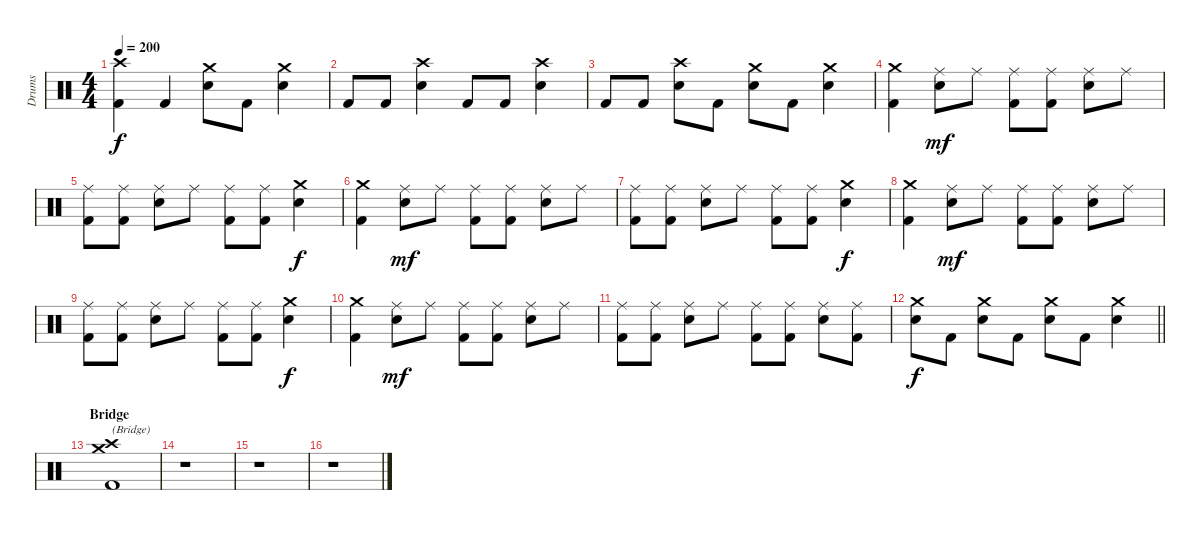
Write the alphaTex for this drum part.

\track ("Drums" "Drums") {instrument percussion}
\staff {score}
\articulation defaults
\ts (4 4)
\tempo 200
\clef neutral
\ks c
("Crash high (hit)" "Kick (hit) 2").4{dy f} "Kick (hit) 2".4 ("Crash medium (hit)" "Electric Snare (hit)").8 "Kick (hit) 2".8 ("Crash medium (hit)" "Electric Snare (hit)").4 |
"Kick (hit) 2".8 "Kick (hit) 2".8 ("Crash high (hit)" "Electric Snare (hit)").4 "Kick (hit) 2".8 "Kick (hit) 2".8 ("Crash high (hit)" "Electric Snare (hit)").4 |
"Kick (hit) 2".8 "Kick (hit) 2".8 ("Crash high (hit)" "Electric Snare (hit)").8 "Kick (hit) 2".8 ("Crash medium (hit)" "Electric Snare (hit)").8 "Kick (hit) 2".8 ("Crash medium (hit)" "Electric Snare (hit)").4 |
("Crash medium (hit)" "Kick (hit) 2").4 ("Ride (middle)" "Electric Snare (hit)").8{dy mf} "Ride (middle)".8 ("Ride (middle)" "Kick (hit) 2").8 ("Ride (middle)" "Kick (hit) 2").8 ("Ride (middle)" "Electric Snare (hit)").8 "Ride (middle)".8 |
("Ride (middle)" "Kick (hit) 2").8 ("Ride (middle)" "Kick (hit) 2").8 ("Ride (middle)" "Electric Snare (hit)").8 "Ride (middle)".8 ("Ride (middle)" "Kick (hit) 2").8 ("Ride (middle)" "Kick (hit) 2").8 ("Crash medium (hit)" "Electric Snare (hit)").4{dy f} |
("Crash medium (hit)" "Kick (hit) 2").4 ("Ride (middle)" "Electric Snare (hit)").8{dy mf} "Ride (middle)".8 ("Ride (middle)" "Kick (hit) 2").8 ("Ride (middle)" "Kick (hit) 2").8 ("Ride (middle)" "Electric Snare (hit)").8 "Ride (middle)".8 |
("Ride (middle)" "Kick (hit) 2").8 ("Ride (middle)" "Kick (hit) 2").8 ("Ride (middle)" "Electric Snare (hit)").8 "Ride (middle)".8 ("Ride (middle)" "Kick (hit) 2").8 ("Ride (middle)" "Kick (hit) 2").8 ("Crash medium (hit)" "Electric Snare (hit)").4{dy f} |
("Crash medium (hit)" "Kick (hit) 2").4 ("Ride (middle)" "Electric Snare (hit)").8{dy mf} "Ride (middle)".8 ("Ride (middle)" "Kick (hit) 2").8 ("Ride (middle)" "Kick (hit) 2").8 ("Ride (middle)" "Electric Snare (hit)").8 "Ride (middle)".8 |
("Ride (middle)" "Kick (hit) 2").8 ("Ride (middle)" "Kick (hit) 2").8 ("Ride (middle)" "Electric Snare (hit)").8 "Ride (middle)".8 ("Ride (middle)" "Kick (hit) 2").8 ("Ride (middle)" "Kick (hit) 2").8 ("Crash medium (hit)" "Electric Snare (hit)").4{dy f} |
("Crash medium (hit)" "Kick (hit) 2").4 ("Ride (middle)" "Electric Snare (hit)").8{dy mf} "Ride (middle)".8 ("Ride (middle)" "Kick (hit) 2").8 ("Ride (middle)" "Kick (hit) 2").8 ("Ride (middle)" "Electric Snare (hit)").8 "Ride (middle)".8 |
("Ride (middle)" "Kick (hit) 2").8 ("Ride (middle)" "Kick (hit) 2").8 ("Ride (middle)" "Electric Snare (hit)").8 "Ride (middle)".8 ("Ride (middle)" "Kick (hit) 2").8 ("Ride (middle)" "Kick (hit) 2").8 ("Ride (middle)" "Electric Snare (hit)").8 ("Ride (middle)" "Kick (hit) 2").8 |
\barLineRight lightlight
("Crash medium (hit)" "Electric Snare (hit)").8{dy f} "Kick (hit) 2".8 ("Crash medium (hit)" "Electric Snare (hit)").8 "Kick (hit) 2".8 ("Crash medium (hit)" "Electric Snare (hit)").8 "Kick (hit) 2".8 ("Crash medium (hit)" "Electric Snare (hit)").4 |
\section ("" "Bridge")
("Crash medium (hit)" "Crash high (hit)" "Kick (hit) 2").1{txt "(Bridge)"} |
r.1 |
r.1 |
r.1
